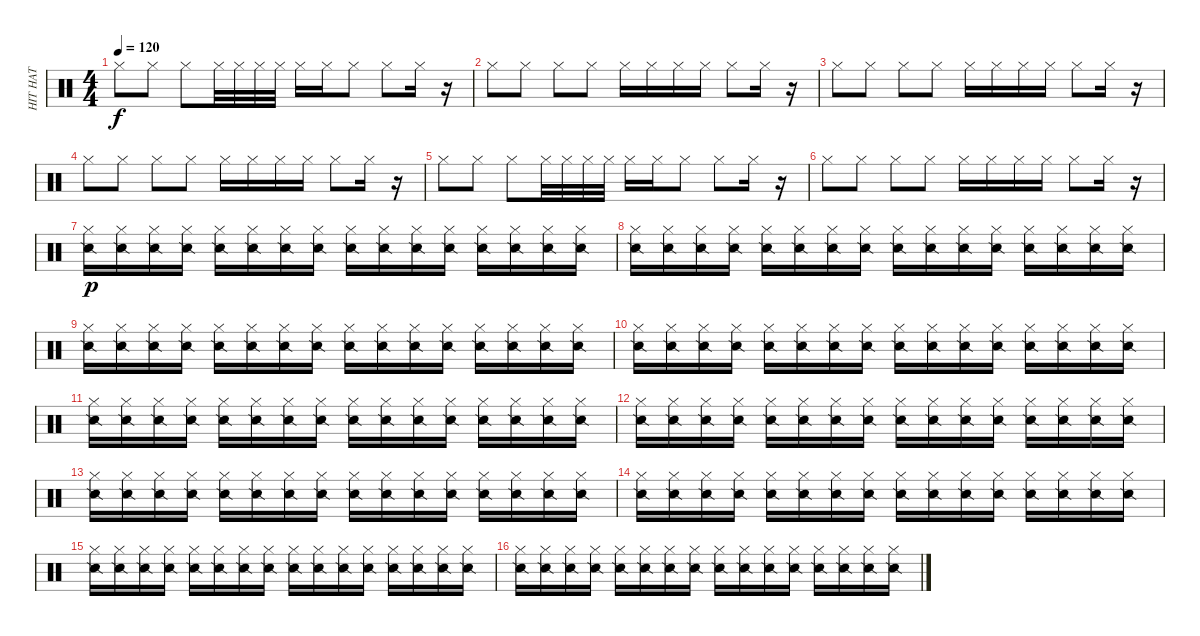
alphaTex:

\track ("HIT HAT" "HIT HAT") {instrument percussion}
\staff {score}
\articulation defaults
\ts (4 4)
\tempo 120
\clef neutral
\ks c "Hi-Hat (closed)".8{dy f} "Hi-Hat (closed)".8 "Hi-Hat (closed)".8 "Hi-Hat (closed)".32 "Hi-Hat (closed)".32 "Hi-Hat (closed)".32 "Hi-Hat (closed)".32 "Hi-Hat (closed)".16 "Hi-Hat (closed)".16 "Hi-Hat (closed)".8 "Hi-Hat (closed)".8 "Hi-Hat (closed)".16
r.16 |
"Hi-Hat (closed)".8 "Hi-Hat (closed)".8 "Hi-Hat (closed)".8 "Hi-Hat (closed)".8 "Hi-Hat (closed)".16 "Hi-Hat (closed)".16 "Hi-Hat (closed)".16 "Hi-Hat (closed)".16 "Hi-Hat (closed)".8 "Hi-Hat (closed)".16 r.16 |
"Hi-Hat (closed)".8 "Hi-Hat (closed)".8 "Hi-Hat (closed)".8 "Hi-Hat (closed)".8 "Hi-Hat (closed)".16 "Hi-Hat (closed)".16 "Hi-Hat (closed)".16 "Hi-Hat (closed)".16 "Hi-Hat (closed)".8 "Hi-Hat (closed)".16 r.16 |
"Hi-Hat (closed)".8 "Hi-Hat (closed)".8 "Hi-Hat (closed)".8 "Hi-Hat (closed)".8 "Hi-Hat (closed)".16 "Hi-Hat (closed)".16 "Hi-Hat (closed)".16 "Hi-Hat (closed)".16 "Hi-Hat (closed)".8 "Hi-Hat (closed)".16 r.16 |
"Hi-Hat (closed)".8 "Hi-Hat (closed)".8 "Hi-Hat (closed)".8 "Hi-Hat (closed)".32 "Hi-Hat (closed)".32 "Hi-Hat (closed)".32 "Hi-Hat (closed)".32 "Hi-Hat (closed)".16 "Hi-Hat (closed)".16 "Hi-Hat (closed)".8 "Hi-Hat (closed)".8 "Hi-Hat (closed)".16 r.16 |
"Hi-Hat (closed)".8 "Hi-Hat (closed)".8 "Hi-Hat (closed)".8 "Hi-Hat (closed)".8 "Hi-Hat (closed)".16 "Hi-Hat (closed)".16 "Hi-Hat (closed)".16 "Hi-Hat (closed)".16 "Hi-Hat (closed)".8 "Hi-Hat (closed)".16 r.16 |
("Hi-Hat (closed)" "Snare (side stick) 2").16{dy p} ("Hi-Hat (closed)" "Snare (side stick) 2").16 ("Hi-Hat (closed)" "Snare (side stick) 2").16 ("Hi-Hat (closed)" "Snare (side stick) 2").16 ("Hi-Hat (closed)" "Snare (side stick) 2").16 ("Hi-Hat (closed)" "Snare (side stick) 2").16 ("Hi-Hat (closed)" "Snare (side stick) 2").16 ("Hi-Hat (closed)" "Snare (side stick) 2").16 ("Hi-Hat (closed)" "Snare (side stick) 2").16 ("Hi-Hat (closed)" "Snare (side stick) 2").16 ("Hi-Hat (closed)" "Snare (side stick) 2").16 ("Hi-Hat (closed)" "Snare (side stick) 2").16 ("Hi-Hat (closed)" "Snare (side stick) 2").16 ("Hi-Hat (closed)" "Snare (side stick) 2").16 ("Hi-Hat (closed)" "Snare (side stick) 2").16 ("Hi-Hat (closed)" "Snare (side stick) 2").16 |
("Hi-Hat (closed)" "Snare (side stick) 2").16 ("Hi-Hat (closed)" "Snare (side stick) 2").16 ("Hi-Hat (closed)" "Snare (side stick) 2").16 ("Hi-Hat (closed)" "Snare (side stick) 2").16 ("Hi-Hat (closed)" "Snare (side stick) 2").16 ("Hi-Hat (closed)" "Snare (side stick) 2").16 ("Hi-Hat (closed)" "Snare (side stick) 2").16 ("Hi-Hat (closed)" "Snare (side stick) 2").16 ("Hi-Hat (closed)" "Snare (side stick) 2").16 ("Hi-Hat (closed)" "Snare (side stick) 2").16 ("Hi-Hat (closed)" "Snare (side stick) 2").16 ("Hi-Hat (closed)" "Snare (side stick) 2").16 ("Hi-Hat (closed)" "Snare (side stick) 2").16 ("Hi-Hat (closed)" "Snare (side stick) 2").16 ("Hi-Hat (closed)" "Snare (side stick) 2").16 ("Hi-Hat (closed)" "Snare (side stick) 2").16 |
("Hi-Hat (closed)" "Snare (side stick) 2").16 ("Hi-Hat (closed)" "Snare (side stick) 2").16 ("Hi-Hat (closed)" "Snare (side stick) 2").16 ("Hi-Hat (closed)" "Snare (side stick) 2").16 ("Hi-Hat (closed)" "Snare (side stick) 2").16 ("Hi-Hat (closed)" "Snare (side stick) 2").16 ("Hi-Hat (closed)" "Snare (side stick) 2").16 ("Hi-Hat (closed)" "Snare (side stick) 2").16 ("Hi-Hat (closed)" "Snare (side stick) 2").16 ("Hi-Hat (closed)" "Snare (side stick) 2").16 ("Hi-Hat (closed)" "Snare (side stick) 2").16 ("Hi-Hat (closed)" "Snare (side stick) 2").16 ("Hi-Hat (closed)" "Snare (side stick) 2").16 ("Hi-Hat (closed)" "Snare (side stick) 2").16 ("Hi-Hat (closed)" "Snare (side stick) 2").16 ("Hi-Hat (closed)" "Snare (side stick) 2").16 |
("Hi-Hat (closed)" "Snare (side stick) 2").16 ("Hi-Hat (closed)" "Snare (side stick) 2").16 ("Hi-Hat (closed)" "Snare (side stick) 2").16 ("Hi-Hat (closed)" "Snare (side stick) 2").16 ("Hi-Hat (closed)" "Snare (side stick) 2").16 ("Hi-Hat (closed)" "Snare (side stick) 2").16 ("Hi-Hat (closed)" "Snare (side stick) 2").16 ("Hi-Hat (closed)" "Snare (side stick) 2").16 ("Hi-Hat (closed)" "Snare (side stick) 2").16 ("Hi-Hat (closed)" "Snare (side stick) 2").16 ("Hi-Hat (closed)" "Snare (side stick) 2").16 ("Hi-Hat (closed)" "Snare (side stick) 2").16 ("Hi-Hat (closed)" "Snare (side stick) 2").16 ("Hi-Hat (closed)" "Snare (side stick) 2").16 ("Hi-Hat (closed)" "Snare (side stick) 2").16 ("Hi-Hat (closed)" "Snare (side stick) 2").16 |
("Hi-Hat (closed)" "Snare (side stick) 2").16 ("Hi-Hat (closed)" "Snare (side stick) 2").16 ("Hi-Hat (closed)" "Snare (side stick) 2").16 ("Hi-Hat (closed)" "Snare (side stick) 2").16 ("Hi-Hat (closed)" "Snare (side stick) 2").16 ("Hi-Hat (closed)" "Snare (side stick) 2").16 ("Hi-Hat (closed)" "Snare (side stick) 2").16 ("Hi-Hat (closed)" "Snare (side stick) 2").16 ("Hi-Hat (closed)" "Snare (side stick) 2").16 ("Hi-Hat (closed)" "Snare (side stick) 2").16 ("Hi-Hat (closed)" "Snare (side stick) 2").16 ("Hi-Hat (closed)" "Snare (side stick) 2").16 ("Hi-Hat (closed)" "Snare (side stick) 2").16 ("Hi-Hat (closed)" "Snare (side stick) 2").16 ("Hi-Hat (closed)" "Snare (side stick) 2").16 ("Hi-Hat (closed)" "Snare (side stick) 2").16 |
("Hi-Hat (closed)" "Snare (side stick) 2").16 ("Hi-Hat (closed)" "Snare (side stick) 2").16 ("Hi-Hat (closed)" "Snare (side stick) 2").16 ("Hi-Hat (closed)" "Snare (side stick) 2").16 ("Hi-Hat (closed)" "Snare (side stick) 2").16 ("Hi-Hat (closed)" "Snare (side stick) 2").16 ("Hi-Hat (closed)" "Snare (side stick) 2").16 ("Hi-Hat (closed)" "Snare (side stick) 2").16 ("Hi-Hat (closed)" "Snare (side stick) 2").16 ("Hi-Hat (closed)" "Snare (side stick) 2").16 ("Hi-Hat (closed)" "Snare (side stick) 2").16 ("Hi-Hat (closed)" "Snare (side stick) 2").16 ("Hi-Hat (closed)" "Snare (side stick) 2").16 ("Hi-Hat (closed)" "Snare (side stick) 2").16 ("Hi-Hat (closed)" "Snare (side stick) 2").16 ("Hi-Hat (closed)" "Snare (side stick) 2").16 |
("Hi-Hat (closed)" "Snare (side stick) 2").16 ("Hi-Hat (closed)" "Snare (side stick) 2").16 ("Hi-Hat (closed)" "Snare (side stick) 2").16 ("Hi-Hat (closed)" "Snare (side stick) 2").16 ("Hi-Hat (closed)" "Snare (side stick) 2").16 ("Hi-Hat (closed)" "Snare (side stick) 2").16 ("Hi-Hat (closed)" "Snare (side stick) 2").16 ("Hi-Hat (closed)" "Snare (side stick) 2").16 ("Hi-Hat (closed)" "Snare (side stick) 2").16 ("Hi-Hat (closed)" "Snare (side stick) 2").16 ("Hi-Hat (closed)" "Snare (side stick) 2").16 ("Hi-Hat (closed)" "Snare (side stick) 2").16 ("Hi-Hat (closed)" "Snare (side stick) 2").16 ("Hi-Hat (closed)" "Snare (side stick) 2").16 ("Hi-Hat (closed)" "Snare (side stick) 2").16 ("Hi-Hat (closed)" "Snare (side stick) 2").16 |
("Hi-Hat (closed)" "Snare (side stick) 2").16 ("Hi-Hat (closed)" "Snare (side stick) 2").16 ("Hi-Hat (closed)" "Snare (side stick) 2").16 ("Hi-Hat (closed)" "Snare (side stick) 2").16 ("Hi-Hat (closed)" "Snare (side stick) 2").16 ("Hi-Hat (closed)" "Snare (side stick) 2").16 ("Hi-Hat (closed)" "Snare (side stick) 2").16 ("Hi-Hat (closed)" "Snare (side stick) 2").16 ("Hi-Hat (closed)" "Snare (side stick) 2").16 ("Hi-Hat (closed)" "Snare (side stick) 2").16 ("Hi-Hat (closed)" "Snare (side stick) 2").16 ("Hi-Hat (closed)" "Snare (side stick) 2").16 ("Hi-Hat (closed)" "Snare (side stick) 2").16 ("Hi-Hat (closed)" "Snare (side stick) 2").16 ("Hi-Hat (closed)" "Snare (side stick) 2").16 ("Hi-Hat (closed)" "Snare (side stick) 2").16 |
("Hi-Hat (closed)" "Snare (side stick) 2").16 ("Hi-Hat (closed)" "Snare (side stick) 2").16 ("Hi-Hat (closed)" "Snare (side stick) 2").16 ("Hi-Hat (closed)" "Snare (side stick) 2").16 ("Hi-Hat (closed)" "Snare (side stick) 2").16 ("Hi-Hat (closed)" "Snare (side stick) 2").16 ("Hi-Hat (closed)" "Snare (side stick) 2").16 ("Hi-Hat (closed)" "Snare (side stick) 2").16 ("Hi-Hat (closed)" "Snare (side stick) 2").16 ("Hi-Hat (closed)" "Snare (side stick) 2").16 ("Hi-Hat (closed)" "Snare (side stick) 2").16 ("Hi-Hat (closed)" "Snare (side stick) 2").16 ("Hi-Hat (closed)" "Snare (side stick) 2").16 ("Hi-Hat (closed)" "Snare (side stick) 2").16 ("Hi-Hat (closed)" "Snare (side stick) 2").16 ("Hi-Hat (closed)" "Snare (side stick) 2").16 |
("Hi-Hat (closed)" "Snare (side stick) 2").16 ("Hi-Hat (closed)" "Snare (side stick) 2").16 ("Hi-Hat (closed)" "Snare (side stick) 2").16 ("Hi-Hat (closed)" "Snare (side stick) 2").16 ("Hi-Hat (closed)" "Snare (side stick) 2").16 ("Hi-Hat (closed)" "Snare (side stick) 2").16 ("Hi-Hat (closed)" "Snare (side stick) 2").16 ("Hi-Hat (closed)" "Snare (side stick) 2").16 ("Hi-Hat (closed)" "Snare (side stick) 2").16 ("Hi-Hat (closed)" "Snare (side stick) 2").16 ("Hi-Hat (closed)" "Snare (side stick) 2").16 ("Hi-Hat (closed)" "Snare (side stick) 2").16 ("Hi-Hat (closed)" "Snare (side stick) 2").16 ("Hi-Hat (closed)" "Snare (side stick) 2").16 ("Hi-Hat (closed)" "Snare (side stick) 2").16 ("Hi-Hat (closed)" "Snare (side stick) 2").16
